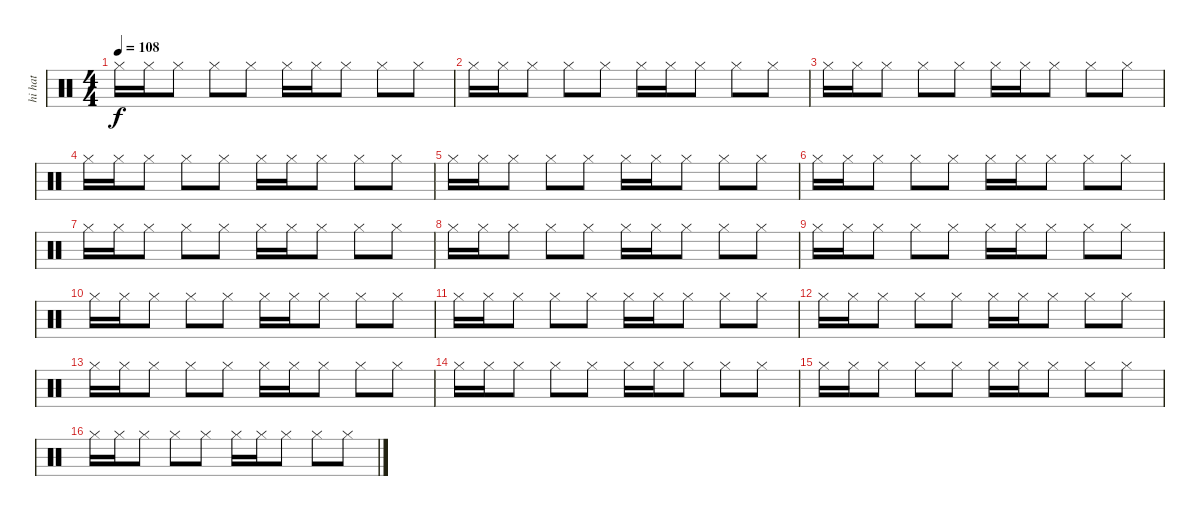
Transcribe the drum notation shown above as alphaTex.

\track ("hi hat              " "hi hat    ") {instrument percussion}
\staff {score}
\articulation defaults
\ts (4 4)
\tempo 108
\clef neutral
\ks c "Hi-Hat (closed)".16{dy f} "Hi-Hat (closed)".16 "Hi-Hat (closed)".8 "Hi-Hat (closed)".8 "Hi-Hat (closed)".8 "Hi-Hat (closed)".16 "Hi-Hat (closed)".16 "Hi-Hat (closed)".8 "Hi-Hat (closed)".8 "Hi-Hat (closed)".8
|
"Hi-Hat (closed)".16 "Hi-Hat (closed)".16 "Hi-Hat (closed)".8 "Hi-Hat (closed)".8 "Hi-Hat (closed)".8 "Hi-Hat (closed)".16 "Hi-Hat (closed)".16 "Hi-Hat (closed)".8 "Hi-Hat (closed)".8 "Hi-Hat (closed)".8 |
"Hi-Hat (closed)".16 "Hi-Hat (closed)".16 "Hi-Hat (closed)".8 "Hi-Hat (closed)".8 "Hi-Hat (closed)".8 "Hi-Hat (closed)".16 "Hi-Hat (closed)".16 "Hi-Hat (closed)".8 "Hi-Hat (closed)".8 "Hi-Hat (closed)".8 |
"Hi-Hat (closed)".16 "Hi-Hat (closed)".16 "Hi-Hat (closed)".8 "Hi-Hat (closed)".8 "Hi-Hat (closed)".8 "Hi-Hat (closed)".16 "Hi-Hat (closed)".16 "Hi-Hat (closed)".8 "Hi-Hat (closed)".8 "Hi-Hat (closed)".8 |
"Hi-Hat (closed)".16 "Hi-Hat (closed)".16 "Hi-Hat (closed)".8 "Hi-Hat (closed)".8 "Hi-Hat (closed)".8 "Hi-Hat (closed)".16 "Hi-Hat (closed)".16 "Hi-Hat (closed)".8 "Hi-Hat (closed)".8 "Hi-Hat (closed)".8 |
"Hi-Hat (closed)".16 "Hi-Hat (closed)".16 "Hi-Hat (closed)".8 "Hi-Hat (closed)".8 "Hi-Hat (closed)".8 "Hi-Hat (closed)".16 "Hi-Hat (closed)".16 "Hi-Hat (closed)".8 "Hi-Hat (closed)".8 "Hi-Hat (closed)".8 |
"Hi-Hat (closed)".16 "Hi-Hat (closed)".16 "Hi-Hat (closed)".8 "Hi-Hat (closed)".8 "Hi-Hat (closed)".8 "Hi-Hat (closed)".16 "Hi-Hat (closed)".16 "Hi-Hat (closed)".8 "Hi-Hat (closed)".8 "Hi-Hat (closed)".8 |
"Hi-Hat (closed)".16 "Hi-Hat (closed)".16 "Hi-Hat (closed)".8 "Hi-Hat (closed)".8 "Hi-Hat (closed)".8 "Hi-Hat (closed)".16 "Hi-Hat (closed)".16 "Hi-Hat (closed)".8 "Hi-Hat (closed)".8 "Hi-Hat (closed)".8 |
"Hi-Hat (closed)".16 "Hi-Hat (closed)".16 "Hi-Hat (closed)".8 "Hi-Hat (closed)".8 "Hi-Hat (closed)".8 "Hi-Hat (closed)".16 "Hi-Hat (closed)".16 "Hi-Hat (closed)".8 "Hi-Hat (closed)".8 "Hi-Hat (closed)".8 |
"Hi-Hat (closed)".16 "Hi-Hat (closed)".16 "Hi-Hat (closed)".8 "Hi-Hat (closed)".8 "Hi-Hat (closed)".8 "Hi-Hat (closed)".16 "Hi-Hat (closed)".16 "Hi-Hat (closed)".8 "Hi-Hat (closed)".8 "Hi-Hat (closed)".8 |
"Hi-Hat (closed)".16 "Hi-Hat (closed)".16 "Hi-Hat (closed)".8 "Hi-Hat (closed)".8 "Hi-Hat (closed)".8 "Hi-Hat (closed)".16 "Hi-Hat (closed)".16 "Hi-Hat (closed)".8 "Hi-Hat (closed)".8 "Hi-Hat (closed)".8 |
"Hi-Hat (closed)".16 "Hi-Hat (closed)".16 "Hi-Hat (closed)".8 "Hi-Hat (closed)".8 "Hi-Hat (closed)".8 "Hi-Hat (closed)".16 "Hi-Hat (closed)".16 "Hi-Hat (closed)".8 "Hi-Hat (closed)".8 "Hi-Hat (closed)".8 |
"Hi-Hat (closed)".16 "Hi-Hat (closed)".16 "Hi-Hat (closed)".8 "Hi-Hat (closed)".8 "Hi-Hat (closed)".8 "Hi-Hat (closed)".16 "Hi-Hat (closed)".16 "Hi-Hat (closed)".8 "Hi-Hat (closed)".8 "Hi-Hat (closed)".8 |
"Hi-Hat (closed)".16 "Hi-Hat (closed)".16 "Hi-Hat (closed)".8 "Hi-Hat (closed)".8 "Hi-Hat (closed)".8 "Hi-Hat (closed)".16 "Hi-Hat (closed)".16 "Hi-Hat (closed)".8 "Hi-Hat (closed)".8 "Hi-Hat (closed)".8 |
"Hi-Hat (closed)".16 "Hi-Hat (closed)".16 "Hi-Hat (closed)".8 "Hi-Hat (closed)".8 "Hi-Hat (closed)".8 "Hi-Hat (closed)".16 "Hi-Hat (closed)".16 "Hi-Hat (closed)".8 "Hi-Hat (closed)".8 "Hi-Hat (closed)".8 |
"Hi-Hat (closed)".16 "Hi-Hat (closed)".16 "Hi-Hat (closed)".8 "Hi-Hat (closed)".8 "Hi-Hat (closed)".8 "Hi-Hat (closed)".16 "Hi-Hat (closed)".16 "Hi-Hat (closed)".8 "Hi-Hat (closed)".8 "Hi-Hat (closed)".8
